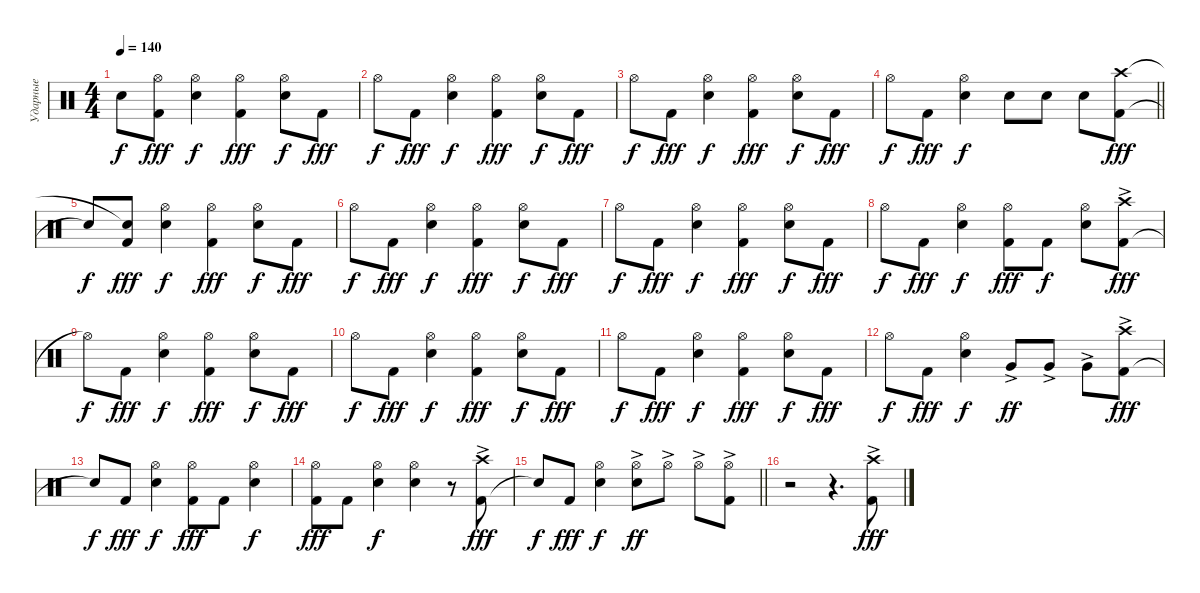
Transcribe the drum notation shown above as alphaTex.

\track ("Ударные" "Ударные") {instrument percussion}
\staff {score}
\articulation defaults
\ts (4 4)
\tempo 140
\clef neutral
\ks c "Snare (hit)"{t}.8{dy f}
("Kick (hit) 2" "Hi-Hat (open)"{t}).8{dy fff} ("Snare (hit) 2" "Hi-Hat (open)").4{dy f} ("Kick (hit) 2" "Hi-Hat (open)").4{dy fff} ("Snare (hit) 2" "Hi-Hat (open)").8{dy f} "Kick (hit) 2".8{dy fff} |
"Hi-Hat (open)".8{dy f} "Kick (hit) 2".8{dy fff} ("Snare (hit) 2" "Hi-Hat (open)").4{dy f} ("Kick (hit) 2" "Hi-Hat (open)").4{dy fff} ("Snare (hit) 2" "Hi-Hat (open)").8{dy f} "Kick (hit) 2".8{dy fff} |
"Hi-Hat (open)".8{dy f} "Kick (hit) 2".8{dy fff} ("Snare (hit) 2" "Hi-Hat (open)").4{dy f} ("Kick (hit) 2" "Hi-Hat (open)").4{dy fff} ("Snare (hit) 2" "Hi-Hat (open)").8{dy f} "Kick (hit) 2".8{dy fff} |
\barLineRight lightlight "Hi-Hat (open)".8{dy f} "Kick (hit) 2".8{dy fff}
("Snare (hit) 2" "Hi-Hat (open)").4{dy f} "Snare (hit) 2".8 "Snare (hit) 2".8 "Snare (hit) 2".8 ("Kick (hit) 2" "Crash high (hit)").8{dy fff} |
"Snare (hit)"{t}.8{dy f} ("Kick (hit) 2" "Snare (hit)"{t}).8{dy fff} ("Snare (hit) 2" "Hi-Hat (open)").4{dy f} ("Kick (hit) 2" "Hi-Hat (open)").4{dy fff} ("Snare (hit) 2" "Hi-Hat (open)").8{dy f} "Kick (hit) 2".8{dy fff} |
"Hi-Hat (open)".8{dy f} "Kick (hit) 2".8{dy fff} ("Snare (hit) 2" "Hi-Hat (open)").4{dy f} ("Kick (hit) 2" "Hi-Hat (open)").4{dy fff} ("Snare (hit) 2" "Hi-Hat (open)").8{dy f} "Kick (hit) 2".8{dy fff} |
"Hi-Hat (open)".8{dy f} "Kick (hit) 2".8{dy fff} ("Snare (hit) 2" "Hi-Hat (open)").4{dy f} ("Kick (hit) 2" "Hi-Hat (open)").4{dy fff} ("Snare (hit) 2" "Hi-Hat (open)").8{dy f} "Kick (hit) 2".8{dy fff} |
"Hi-Hat (open)".8{dy f} "Kick (hit) 2".8{dy fff} ("Snare (hit) 2" "Hi-Hat (open)").4{dy f} ("Kick (hit) 2" "Hi-Hat (open)").8{dy fff} "Kick (hit) 2".8{dy f} ("Snare (hit) 2" "Hi-Hat (open)").8 ("Kick (hit) 2" "Crash high (hit)"{ac}).8{dy fff} |
"Hi-Hat (open)"{t}.8{dy f} "Kick (hit) 2".8{dy fff} ("Snare (hit) 2" "Hi-Hat (open)").4{dy f} ("Kick (hit) 2" "Hi-Hat (open)").4{dy fff} ("Snare (hit) 2" "Hi-Hat (open)").8{dy f} "Kick (hit) 2".8{dy fff} |
"Hi-Hat (open)".8{dy f} "Kick (hit) 2".8{dy fff} ("Snare (hit) 2" "Hi-Hat (open)").4{dy f} ("Kick (hit) 2" "Hi-Hat (open)").4{dy fff} ("Snare (hit) 2" "Hi-Hat (open)").8{dy f} "Kick (hit) 2".8{dy fff} |
"Hi-Hat (open)".8{dy f} "Kick (hit) 2".8{dy fff} ("Snare (hit) 2" "Hi-Hat (open)").4{dy f} ("Kick (hit) 2" "Hi-Hat (open)").4{dy fff} ("Snare (hit) 2" "Hi-Hat (open)").8{dy f} "Kick (hit) 2".8{dy fff} |
"Hi-Hat (open)".8{dy f} "Kick (hit) 2".8{dy fff} ("Snare (hit) 2" "Hi-Hat (open)").4{dy f} "Very Low Tom (hit)"{ac}.8{dy ff} "Very Low Tom (hit)"{ac}.8 "Very Low Tom (hit)"{ac}.8 ("Kick (hit) 2"{ac} "Crash high (hit)"{ac}).8{dy fff} |
"Snare (hit)"{t}.8{dy f} "Kick (hit) 2".8{dy fff} ("Snare (hit) 2" "Hi-Hat (open)").4{dy f} ("Kick (hit) 2" "Hi-Hat (open)").8{dy fff} "Kick (hit) 2".8 ("Snare (hit) 2" "Hi-Hat (open)").4{dy f} |
("Kick (hit) 2" "Hi-Hat (open)").8{dy fff} "Kick (hit) 2".8 ("Snare (hit) 2" "Hi-Hat (open)").4{dy f} ("Snare (hit) 2" "Hi-Hat (open)").4 r.8 ("Kick (hit) 2"{ac} "Crash high (hit)"{ac}).8{dy fff} |
\barLineRight lightlight "Snare (hit)"{t}.8{dy f} "Kick (hit) 2".8{dy fff}
("Snare (hit) 2" "Hi-Hat (open)").4{dy f} ("Snare (hit) 2" "Hi-Hat (open)"{ac}).8{dy ff} "Hi-Hat (open)"{ac}.8 "Hi-Hat (open)"{ac}.8 ("Kick (hit) 2"{ac} "Hi-Hat (open)"{ac}).8 |
r.2 r.4{d} ("Crash high (hit)"{ac} "Kick (hit) 2"{ac}).8{dy fff}
